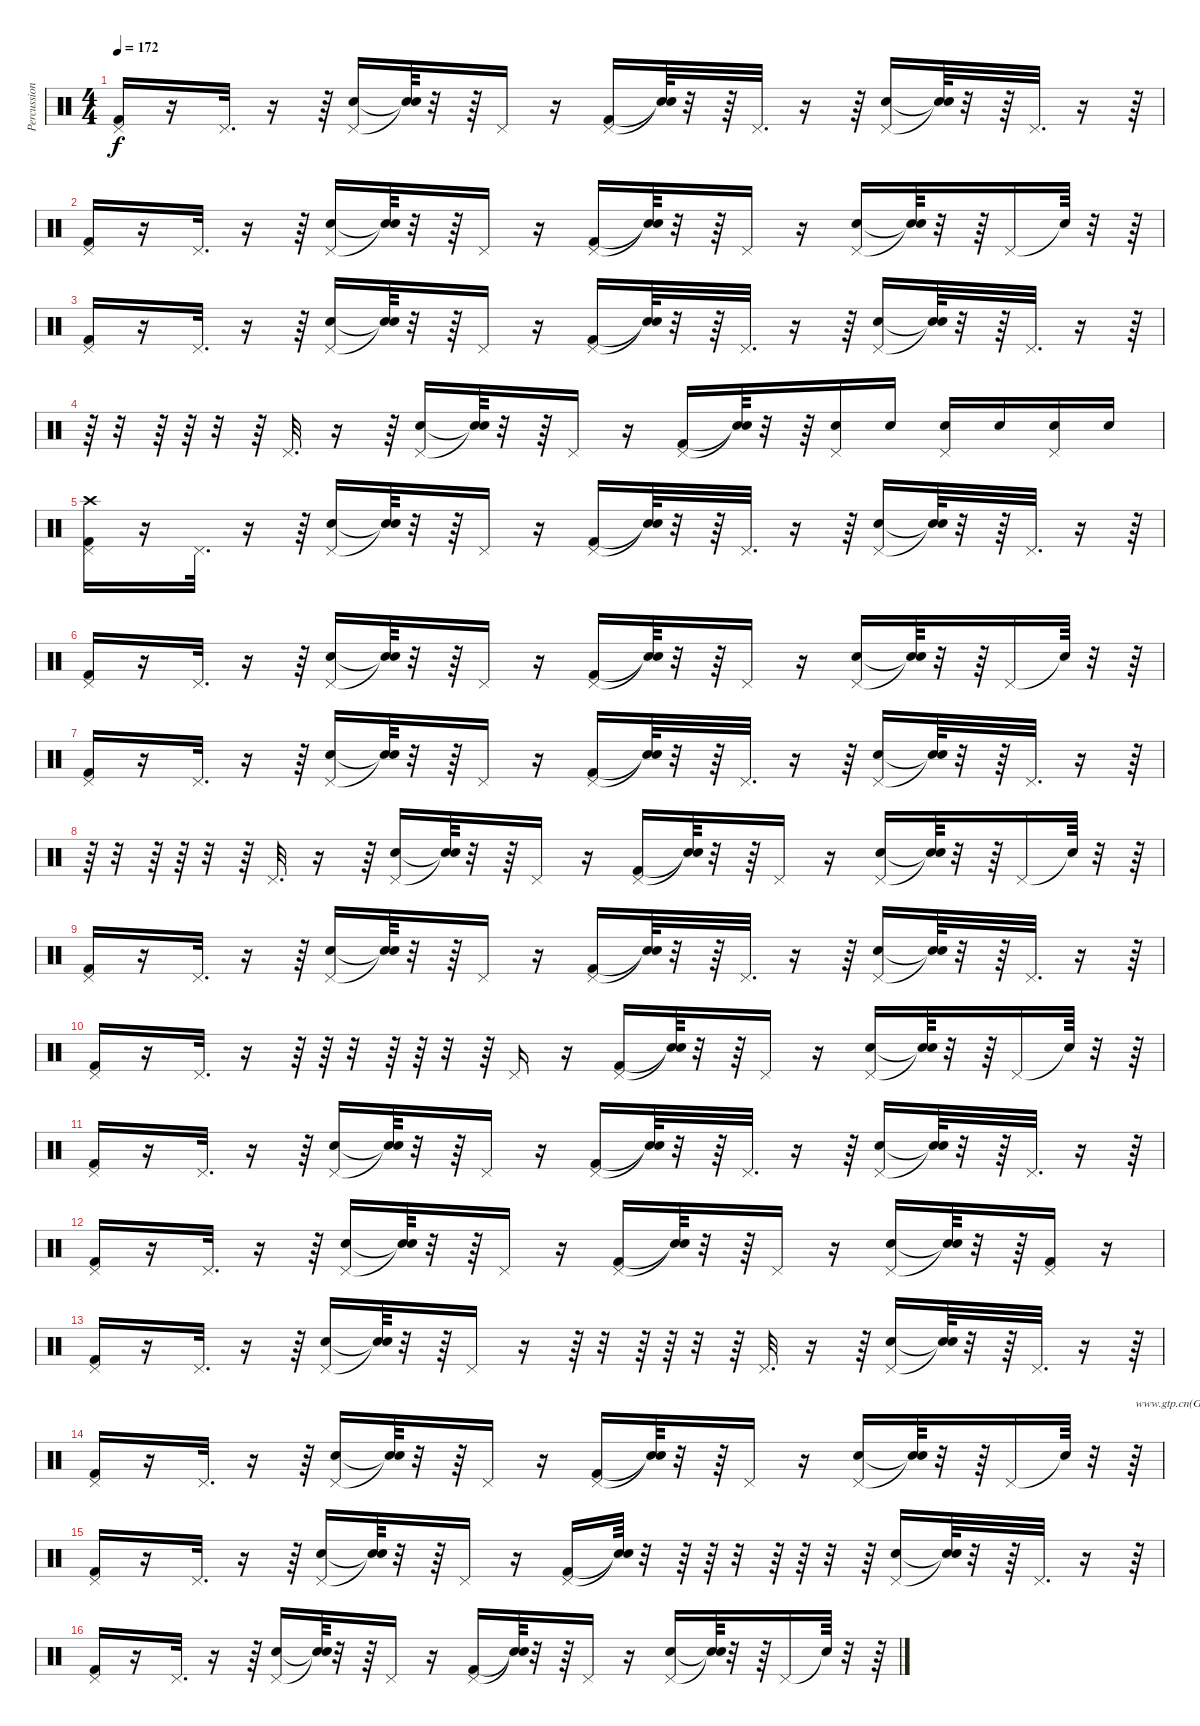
\track ("Percussions" "Percussion") {instrument percussion}
\staff {score}
\articulation defaults
\ts (4 4)
\tempo 172
\clef neutral
\ks c
("Pedal Hi-Hat (hit)" "Kick (hit) 2").16{dy f} r.16 "Pedal Hi-Hat (hit)".32{d} r.16 r.64 ("Pedal Hi-Hat (hit)" "Snare (hit) 2").16 ("Snare (hit)"{t} "Snare (hit)"{t}).64 r.32 r.64 "Pedal Hi-Hat (hit)".16 r.16 ("Pedal Hi-Hat (hit)" "Kick (hit) 2").16 ("Snare (hit)"{t} "Snare (hit)"{t}).64 r.32 r.64 "Pedal Hi-Hat (hit)".32{d} r.16 r.64 ("Pedal Hi-Hat (hit)" "Snare (hit) 2").16 ("Snare (hit)"{t} "Snare (hit)"{t}).64 r.32 r.64 "Pedal Hi-Hat (hit)".32{d} r.16 r.64 |
("Pedal Hi-Hat (hit)" "Kick (hit) 2").16 r.16 "Pedal Hi-Hat (hit)".32{d} r.16 r.64 ("Pedal Hi-Hat (hit)" "Snare (hit) 2").16 ("Snare (hit)"{t} "Snare (hit)"{t}).64 r.32 r.64 "Pedal Hi-Hat (hit)".16 r.16 ("Pedal Hi-Hat (hit)" "Kick (hit) 2").16 ("Snare (hit)"{t} "Snare (hit)"{t}).64 r.32 r.64 "Pedal Hi-Hat (hit)".16 r.16 ("Pedal Hi-Hat (hit)" "Snare (hit) 2").16 ("Snare (hit)"{t} "Snare (hit)"{t}).64 r.32 r.64 "Pedal Hi-Hat (hit)".16 "Snare (hit)"{t}.64 r.32 r.64 |
("Pedal Hi-Hat (hit)" "Kick (hit) 2").16 r.16 "Pedal Hi-Hat (hit)".32{d} r.16 r.64 ("Pedal Hi-Hat (hit)" "Snare (hit) 2").16 ("Snare (hit)"{t} "Snare (hit)"{t}).64 r.32 r.64 "Pedal Hi-Hat (hit)".16 r.16 ("Pedal Hi-Hat (hit)" "Kick (hit) 2").16 ("Snare (hit)"{t} "Snare (hit)"{t}).64 r.32 r.64 "Pedal Hi-Hat (hit)".32{d} r.16 r.64 ("Pedal Hi-Hat (hit)" "Snare (hit) 2").16 ("Snare (hit)"{t} "Snare (hit)"{t}).64 r.32 r.64 "Pedal Hi-Hat (hit)".32{d} r.16 r.64 |
r.64 r.32 r.64 r.64 r.32 r.64 "Pedal Hi-Hat (hit)".32{d} r.16 r.64 ("Pedal Hi-Hat (hit)" "Snare (hit) 2").16 ("Snare (hit)"{t} "Snare (hit)"{t}).64 r.32 r.64 "Pedal Hi-Hat (hit)".16 r.16 ("Pedal Hi-Hat (hit)" "Kick (hit) 2").16 ("Snare (hit)"{t} "Snare (hit)"{t}).64 r.32 r.64 ("Pedal Hi-Hat (hit)" "Snare (hit) 2").16 "Snare (hit) 2".16 ("Snare (hit) 2" "Pedal Hi-Hat (hit)").16 "Snare (hit) 2".16 ("Snare (hit) 2" "Pedal Hi-Hat (hit)").16 "Snare (hit) 2".16 |
("Pedal Hi-Hat (hit)" "Crash high (hit)" "Kick (hit) 2").16 r.16 "Pedal Hi-Hat (hit)".32{d} r.16 r.64 ("Pedal Hi-Hat (hit)" "Snare (hit) 2").16 ("Snare (hit)"{t} "Snare (hit)"{t}).64 r.32 r.64 "Pedal Hi-Hat (hit)".16 r.16 ("Pedal Hi-Hat (hit)" "Kick (hit) 2").16 ("Snare (hit)"{t} "Snare (hit)"{t}).64 r.32 r.64 "Pedal Hi-Hat (hit)".32{d} r.16 r.64 ("Pedal Hi-Hat (hit)" "Snare (hit) 2").16 ("Snare (hit)"{t} "Snare (hit)"{t}).64 r.32 r.64 "Pedal Hi-Hat (hit)".32{d} r.16 r.64 |
("Pedal Hi-Hat (hit)" "Kick (hit) 2").16 r.16 "Pedal Hi-Hat (hit)".32{d} r.16 r.64 ("Pedal Hi-Hat (hit)" "Snare (hit) 2").16 ("Snare (hit)"{t} "Snare (hit)"{t}).64 r.32 r.64 "Pedal Hi-Hat (hit)".16 r.16 ("Pedal Hi-Hat (hit)" "Kick (hit) 2").16 ("Snare (hit)"{t} "Snare (hit)"{t}).64 r.32 r.64 "Pedal Hi-Hat (hit)".16 r.16 ("Pedal Hi-Hat (hit)" "Snare (hit) 2").16 ("Snare (hit)"{t} "Snare (hit)"{t}).64 r.32 r.64 "Pedal Hi-Hat (hit)".16 "Snare (hit)"{t}.64 r.32 r.64 |
("Pedal Hi-Hat (hit)" "Kick (hit) 2").16 r.16 "Pedal Hi-Hat (hit)".32{d} r.16 r.64 ("Pedal Hi-Hat (hit)" "Snare (hit) 2").16 ("Snare (hit)"{t} "Snare (hit)"{t}).64 r.32 r.64 "Pedal Hi-Hat (hit)".16 r.16 ("Pedal Hi-Hat (hit)" "Kick (hit) 2").16 ("Snare (hit)"{t} "Snare (hit)"{t}).64 r.32 r.64 "Pedal Hi-Hat (hit)".32{d} r.16 r.64 ("Pedal Hi-Hat (hit)" "Snare (hit) 2").16 ("Snare (hit)"{t} "Snare (hit)"{t}).64 r.32 r.64 "Pedal Hi-Hat (hit)".32{d} r.16 r.64 |
r.64 r.32 r.64 r.64 r.32 r.64 "Pedal Hi-Hat (hit)".32{d} r.16 r.64 ("Pedal Hi-Hat (hit)" "Snare (hit) 2").16 ("Snare (hit)"{t} "Snare (hit)"{t}).64 r.32 r.64 "Pedal Hi-Hat (hit)".16 r.16 ("Pedal Hi-Hat (hit)" "Kick (hit) 2").16 ("Snare (hit)"{t} "Snare (hit)"{t}).64 r.32 r.64 "Pedal Hi-Hat (hit)".16 r.16 ("Pedal Hi-Hat (hit)" "Snare (hit) 2").16 ("Snare (hit)"{t} "Snare (hit)"{t}).64 r.32 r.64 "Pedal Hi-Hat (hit)".16 "Snare (hit)"{t}.64 r.32 r.64 |
("Pedal Hi-Hat (hit)" "Kick (hit) 2").16 r.16 "Pedal Hi-Hat (hit)".32{d} r.16 r.64 ("Pedal Hi-Hat (hit)" "Snare (hit) 2").16 ("Snare (hit)"{t} "Snare (hit)"{t}).64 r.32 r.64 "Pedal Hi-Hat (hit)".16 r.16 ("Pedal Hi-Hat (hit)" "Kick (hit) 2").16 ("Snare (hit)"{t} "Snare (hit)"{t}).64 r.32 r.64 "Pedal Hi-Hat (hit)".32{d} r.16 r.64 ("Pedal Hi-Hat (hit)" "Snare (hit) 2").16 ("Snare (hit)"{t} "Snare (hit)"{t}).64 r.32 r.64 "Pedal Hi-Hat (hit)".32{d} r.16 r.64 |
("Pedal Hi-Hat (hit)" "Kick (hit) 2").16 r.16 "Pedal Hi-Hat (hit)".32{d} r.16 r.64 r.64 r.32 r.64 r.64 r.32 r.64 "Pedal Hi-Hat (hit)".16 r.16 ("Pedal Hi-Hat (hit)" "Kick (hit) 2").16 ("Snare (hit)"{t} "Snare (hit)"{t}).64 r.32 r.64 "Pedal Hi-Hat (hit)".16 r.16 ("Pedal Hi-Hat (hit)" "Snare (hit) 2").16 ("Snare (hit)"{t} "Snare (hit)"{t}).64 r.32 r.64 "Pedal Hi-Hat (hit)".16 "Snare (hit)"{t}.64 r.32 r.64 |
("Pedal Hi-Hat (hit)" "Kick (hit) 2").16 r.16 "Pedal Hi-Hat (hit)".32{d} r.16 r.64 ("Pedal Hi-Hat (hit)" "Snare (hit) 2").16 ("Snare (hit)"{t} "Snare (hit)"{t}).64 r.32 r.64 "Pedal Hi-Hat (hit)".16 r.16 ("Pedal Hi-Hat (hit)" "Kick (hit) 2").16 ("Snare (hit)"{t} "Snare (hit)"{t}).64 r.32 r.64 "Pedal Hi-Hat (hit)".32{d} r.16 r.64 ("Pedal Hi-Hat (hit)" "Snare (hit) 2").16 ("Snare (hit)"{t} "Snare (hit)"{t}).64 r.32 r.64 "Pedal Hi-Hat (hit)".32{d} r.16 r.64 |
("Pedal Hi-Hat (hit)" "Kick (hit) 2").16 r.16 "Pedal Hi-Hat (hit)".32{d} r.16 r.64 ("Pedal Hi-Hat (hit)" "Snare (hit) 2").16 ("Snare (hit)"{t} "Snare (hit)"{t}).64 r.32 r.64 "Pedal Hi-Hat (hit)".16 r.16 ("Pedal Hi-Hat (hit)" "Kick (hit) 2").16 ("Snare (hit)"{t} "Snare (hit)"{t}).64 r.32 r.64 "Pedal Hi-Hat (hit)".16 r.16 ("Pedal Hi-Hat (hit)" "Snare (hit) 2").16 ("Snare (hit)"{t} "Snare (hit)"{t}).64 r.32 r.64 ("Kick (hit) 2" "Pedal Hi-Hat (hit)").16 r.16 |
("Pedal Hi-Hat (hit)" "Kick (hit) 2").16 r.16 "Pedal Hi-Hat (hit)".32{d} r.16 r.64 ("Pedal Hi-Hat (hit)" "Snare (hit) 2").16 ("Snare (hit)"{t} "Snare (hit)"{t}).64 r.32 r.64 "Pedal Hi-Hat (hit)".16 r.16 r.64 r.32 r.64 r.64 r.32 r.64 "Pedal Hi-Hat (hit)".32{d} r.16 r.64 ("Pedal Hi-Hat (hit)" "Snare (hit) 2").16 ("Snare (hit)"{t} "Snare (hit)"{t}).64 r.32 r.64 "Pedal Hi-Hat (hit)".32{d} r.16 r.64 |
("Pedal Hi-Hat (hit)" "Kick (hit) 2").16 r.16 "Pedal Hi-Hat (hit)".32{d} r.16 r.64 ("Pedal Hi-Hat (hit)" "Snare (hit) 2").16 ("Snare (hit)"{t} "Snare (hit)"{t}).64 r.32 r.64 "Pedal Hi-Hat (hit)".16 r.16 ("Pedal Hi-Hat (hit)" "Kick (hit) 2").16 ("Snare (hit)"{t} "Snare (hit)"{t}).64 r.32 r.64 "Pedal Hi-Hat (hit)".16 r.16 ("Pedal Hi-Hat (hit)" "Snare (hit) 2").16 ("Snare (hit)"{t} "Snare (hit)"{t}).64 r.32 r.64 "Pedal Hi-Hat (hit)".16 "Snare (hit)"{t}.64 r.32 r.64{txt "www.gtp.cn(GTP中文网)您提供优秀的GTP"} |
("Pedal Hi-Hat (hit)" "Kick (hit) 2").16 r.16 "Pedal Hi-Hat (hit)".32{d} r.16 r.64 ("Pedal Hi-Hat (hit)" "Snare (hit) 2").16 ("Snare (hit)"{t} "Snare (hit)"{t}).64 r.32 r.64 "Pedal Hi-Hat (hit)".16 r.16 ("Pedal Hi-Hat (hit)" "Kick (hit) 2").16 ("Snare (hit)"{t} "Snare (hit)"{t}).64 r.32 r.64 r.64 r.32 r.64 r.64 r.32 r.64 ("Pedal Hi-Hat (hit)" "Snare (hit) 2").16 ("Snare (hit)"{t} "Snare (hit)"{t}).64 r.32 r.64 "Pedal Hi-Hat (hit)".32{d} r.16 r.64 |
("Pedal Hi-Hat (hit)" "Kick (hit) 2").16 r.16 "Pedal Hi-Hat (hit)".32{d} r.16 r.64 ("Pedal Hi-Hat (hit)" "Snare (hit) 2").16 ("Snare (hit)"{t} "Snare (hit)"{t}).64 r.32 r.64 "Pedal Hi-Hat (hit)".16 r.16 ("Pedal Hi-Hat (hit)" "Kick (hit) 2").16 ("Snare (hit)"{t} "Snare (hit)"{t}).64 r.32 r.64 "Pedal Hi-Hat (hit)".16 r.16 ("Pedal Hi-Hat (hit)" "Snare (hit) 2").16 ("Snare (hit)"{t} "Snare (hit)"{t}).64 r.32 r.64 "Pedal Hi-Hat (hit)".16 "Snare (hit)"{t}.64 r.32 r.64
